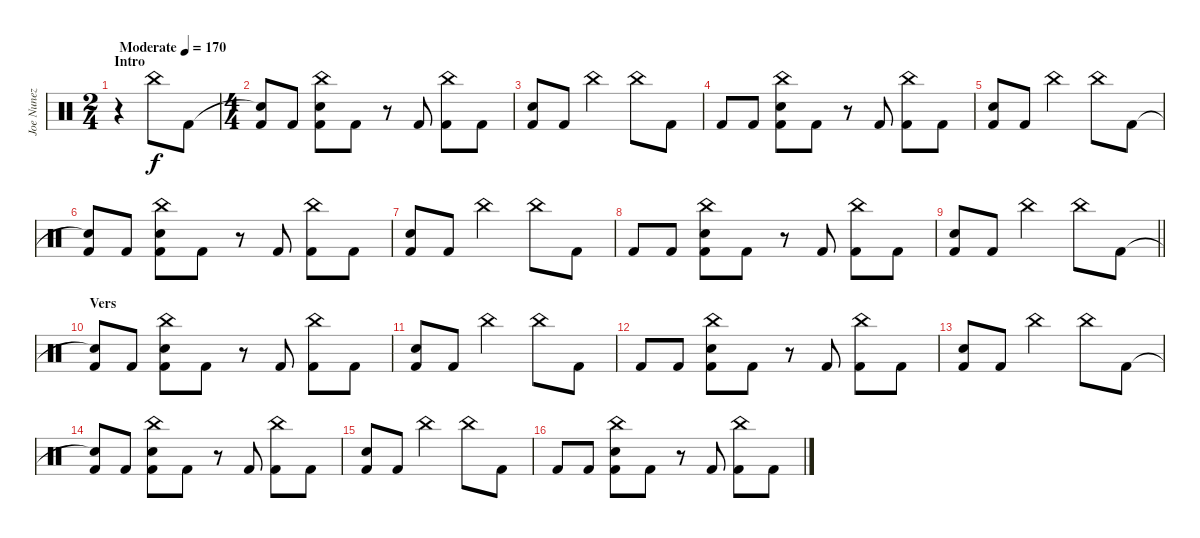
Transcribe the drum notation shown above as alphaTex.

\track ("Joe Nunez" "Joe Nunez") {instrument percussion}
\staff {score}
\articulation defaults
\ts (2 4)
\section ("" "Intro")
\tempo (170 "Moderate")
\clef neutral
\ks c
r.4{dy f} "China (hit)".8 "Kick (hit) 2".8 |
\ts (4 4)
("Snare (hit)"{t} "Kick (hit) 2").8 "Kick (hit) 2".8 ("China (hit)" "Electric Snare (hit)" "Kick (hit) 2").8 "Kick (hit) 2".8 r.8 "Kick (hit) 2".8 ("China (hit)" "Kick (hit) 2").8 "Kick (hit) 2".8 |
("Electric Snare (hit)" "Kick (hit) 2").8 "Kick (hit) 2".8 "China (hit)".2 "China (hit)".8 "Kick (hit) 2".8 |
"Kick (hit) 2".8 "Kick (hit) 2".8 ("China (hit)" "Electric Snare (hit)" "Kick (hit) 2").8 "Kick (hit) 2".8 r.8 "Kick (hit) 2".8 ("China (hit)" "Kick (hit) 2").8 "Kick (hit) 2".8 |
("Electric Snare (hit)" "Kick (hit) 2").8 "Kick (hit) 2".8 "China (hit)".2 "China (hit)".8 "Kick (hit) 2".8 |
("Snare (hit)"{t} "Kick (hit) 2").8 "Kick (hit) 2".8 ("China (hit)" "Electric Snare (hit)" "Kick (hit) 2").8 "Kick (hit) 2".8 r.8 "Kick (hit) 2".8 ("China (hit)" "Kick (hit) 2").8 "Kick (hit) 2".8 |
("Electric Snare (hit)" "Kick (hit) 2").8 "Kick (hit) 2".8 "China (hit)".2 "China (hit)".8 "Kick (hit) 2".8 |
"Kick (hit) 2".8 "Kick (hit) 2".8 ("China (hit)" "Electric Snare (hit)" "Kick (hit) 2").8 "Kick (hit) 2".8 r.8 "Kick (hit) 2".8 ("China (hit)" "Kick (hit) 2").8 "Kick (hit) 2".8 |
\barLineRight lightlight
("Electric Snare (hit)" "Kick (hit) 2").8 "Kick (hit) 2".8 "China (hit)".2 "China (hit)".8 "Kick (hit) 2".8 |
\section ("" "Vers")
("Snare (hit)"{t} "Kick (hit) 2").8 "Kick (hit) 2".8 ("China (hit)" "Electric Snare (hit)" "Kick (hit) 2").8 "Kick (hit) 2".8 r.8 "Kick (hit) 2".8 ("China (hit)" "Kick (hit) 2").8 "Kick (hit) 2".8 |
("Electric Snare (hit)" "Kick (hit) 2").8 "Kick (hit) 2".8 "China (hit)".2 "China (hit)".8 "Kick (hit) 2".8 |
"Kick (hit) 2".8 "Kick (hit) 2".8 ("China (hit)" "Electric Snare (hit)" "Kick (hit) 2").8 "Kick (hit) 2".8 r.8 "Kick (hit) 2".8 ("China (hit)" "Kick (hit) 2").8 "Kick (hit) 2".8 |
("Electric Snare (hit)" "Kick (hit) 2").8 "Kick (hit) 2".8 "China (hit)".2 "China (hit)".8 "Kick (hit) 2".8 |
("Snare (hit)"{t} "Kick (hit) 2").8 "Kick (hit) 2".8 ("China (hit)" "Electric Snare (hit)" "Kick (hit) 2").8 "Kick (hit) 2".8 r.8 "Kick (hit) 2".8 ("China (hit)" "Kick (hit) 2").8 "Kick (hit) 2".8 |
("Electric Snare (hit)" "Kick (hit) 2").8 "Kick (hit) 2".8 "China (hit)".2 "China (hit)".8 "Kick (hit) 2".8 |
"Kick (hit) 2".8 "Kick (hit) 2".8 ("China (hit)" "Electric Snare (hit)" "Kick (hit) 2").8 "Kick (hit) 2".8 r.8 "Kick (hit) 2".8 ("China (hit)" "Kick (hit) 2").8 "Kick (hit) 2".8
